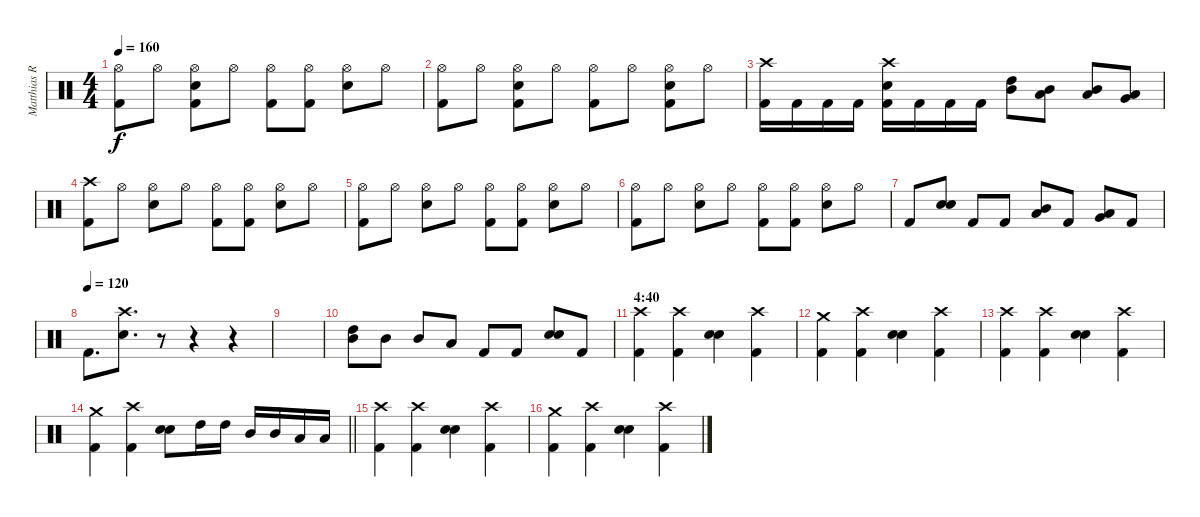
\track ("Matthias R." "Matthias R") {instrument percussion}
\staff {score}
\articulation defaults
\ts (4 4)
\tempo 160
\clef neutral
\ks c
("Kick (hit) 2" "Hi-Hat (open)").8{dy f} "Hi-Hat (open)".8 ("Kick (hit) 2" "Snare (hit) 2" "Hi-Hat (open)").8 "Hi-Hat (open)".8 ("Kick (hit) 2" "Hi-Hat (open)").8 ("Kick (hit) 2" "Hi-Hat (open)").8 ("Snare (hit) 2" "Hi-Hat (open)").8 "Hi-Hat (open)".8 |
("Kick (hit) 2" "Hi-Hat (open)").8 "Hi-Hat (open)".8 ("Kick (hit) 2" "Snare (hit) 2" "Hi-Hat (open)").8 "Hi-Hat (open)".8 ("Kick (hit) 2" "Hi-Hat (open)").8 "Hi-Hat (open)".8 ("Kick (hit) 2" "Snare (hit) 2" "Hi-Hat (open)").8 "Hi-Hat (open)".8 |
("Kick (hit) 2" "Crash high (hit)").16 "Kick (hit) 2".16 "Kick (hit) 2".16 "Kick (hit) 2".16 ("Kick (hit) 2" "Snare (hit) 2" "Crash high (hit)").16 "Kick (hit) 2".16 "Kick (hit) 2".16 "Kick (hit) 2".16 ("High Tom (hit)" "Mid Tom (hit)").8 ("Mid Tom (hit)" "Low Tom (hit)").8 ("Mid Tom (hit)" "Low Tom (hit)").8 ("Low Tom (hit)" "Very Low Tom (hit)").8 |
("Kick (hit) 2" "Crash high (hit)").8 "Hi-Hat (open)".8 ("Snare (hit) 2" "Hi-Hat (open)").8 "Hi-Hat (open)".8 ("Kick (hit) 2" "Hi-Hat (open)").8 ("Kick (hit) 2" "Hi-Hat (open)").8 ("Snare (hit) 2" "Hi-Hat (open)").8 "Hi-Hat (open)".8 |
("Kick (hit) 2" "Hi-Hat (open)").8 "Hi-Hat (open)".8 ("Snare (hit) 2" "Hi-Hat (open)").8 "Hi-Hat (open)".8 ("Kick (hit) 2" "Hi-Hat (open)").8 ("Kick (hit) 2" "Hi-Hat (open)").8 ("Snare (hit) 2" "Hi-Hat (open)").8 "Hi-Hat (open)".8 |
("Kick (hit) 2" "Hi-Hat (open)").8 "Hi-Hat (open)".8 ("Snare (hit) 2" "Hi-Hat (open)").8 "Hi-Hat (open)".8 ("Kick (hit) 2" "Hi-Hat (open)").8 ("Kick (hit) 2" "Hi-Hat (open)").8 ("Snare (hit) 2" "Hi-Hat (open)").8 "Hi-Hat (open)".8 |
"Kick (hit) 2".8 ("Snare (hit) 2" "Snare (hit) 2").8{bu 30} "Kick (hit) 2".8 "Kick (hit) 2".8 ("Mid Tom (hit)" "Low Tom (hit)").8 "Kick (hit) 2".8 ("Low Tom (hit)" "Very Low Tom (hit)").8 "Kick (hit) 2".8 |
\tempo (120)
"Kick (hit) 2".8{d} ("Snare (hit) 2" "Crash high (hit)").8{d} r.8 r.4 r.4 |
|
("High Tom (hit)" "Mid Tom (hit)").8{bu 240} "Mid Tom (hit)".8 "Mid Tom (hit)".8 "Low Tom (hit)".8 "Kick (hit) 2".8 "Kick (hit) 2".8 ("Snare (hit) 2" "Electric Snare (hit)").8{bu 240} "Kick (hit) 2".8 |
\section ("" "4:40")
("Kick (hit) 2" "Crash high (hit)").4 ("Kick (hit) 2" "Crash high (hit)").4 ("Snare (hit) 2" "Electric Snare (hit)").4 ("Kick (hit) 2" "Crash high (hit)").4 |
("Kick (hit) 2" "Crash medium (hit)").4 ("Kick (hit) 2" "Crash high (hit)").4 ("Snare (hit) 2" "Electric Snare (hit)").4 ("Kick (hit) 2" "Crash high (hit)").4 |
("Kick (hit) 2" "Crash high (hit)").4 ("Kick (hit) 2" "Crash high (hit)").4 ("Snare (hit) 2" "Electric Snare (hit)").4 ("Kick (hit) 2" "Crash high (hit)").4 |
\barLineRight lightlight
("Kick (hit) 2" "Crash medium (hit)").4 ("Kick (hit) 2" "Crash high (hit)").4 ("Snare (hit) 2" "Electric Snare (hit)").8{bu 60} "High Tom (hit)".16 "High Tom (hit)".16 "Mid Tom (hit)".16 "Mid Tom (hit)".16 "Low Tom (hit)".16 "Low Tom (hit)".16 |
("Kick (hit) 2" "Crash high (hit)").4 ("Kick (hit) 2" "Crash high (hit)").4 ("Snare (hit) 2" "Electric Snare (hit)").4 ("Kick (hit) 2" "Crash high (hit)").4 |
("Kick (hit) 2" "Crash medium (hit)").4 ("Kick (hit) 2" "Crash high (hit)").4 ("Snare (hit) 2" "Electric Snare (hit)").4 ("Kick (hit) 2" "Crash high (hit)").4
